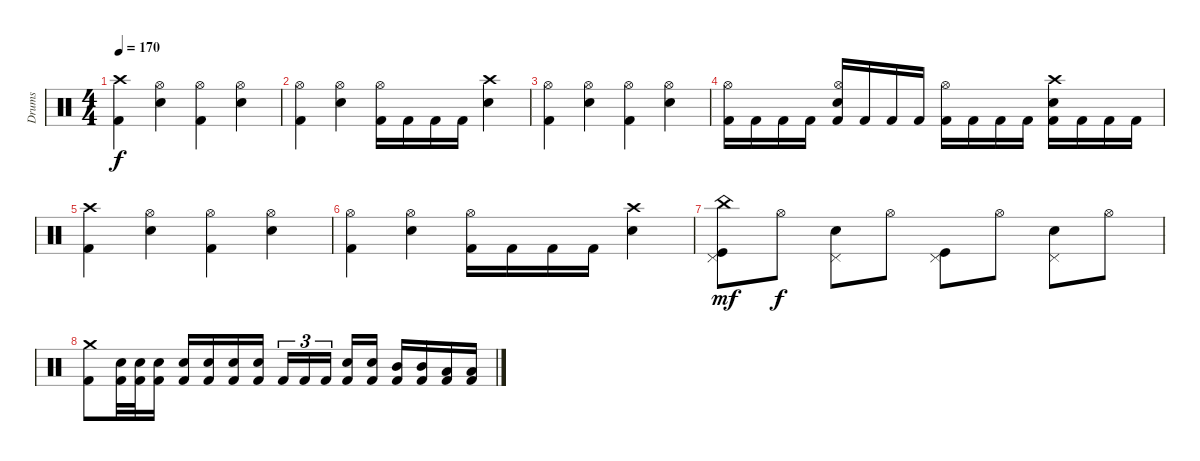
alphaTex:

\track ("Drums" "Drums") {instrument percussion}
\staff {score}
\articulation defaults
\ts (4 4)
\tempo 170
\clef neutral
\ks c
("Crash high (hit)" "Kick (hit) 2").4{dy f} ("Hi-Hat (open)" "Snare (hit) 2").4 ("Hi-Hat (open)" "Kick (hit) 2").4 ("Hi-Hat (open)" "Snare (hit) 2").4 |
("Hi-Hat (open)" "Kick (hit) 2").4 ("Hi-Hat (open)" "Snare (hit) 2").4 ("Hi-Hat (open)" "Kick (hit) 2").16 "Kick (hit) 2".16 "Kick (hit) 2".16 "Kick (hit) 2".16 ("Crash high (hit)" "Snare (hit) 2").4 |
("Hi-Hat (open)" "Kick (hit) 2").4 ("Hi-Hat (open)" "Snare (hit) 2").4 ("Hi-Hat (open)" "Kick (hit) 2").4 ("Hi-Hat (open)" "Snare (hit) 2").4 |
("Hi-Hat (open)" "Kick (hit) 2").16 "Kick (hit) 2".16 "Kick (hit) 2".16 "Kick (hit) 2".16 ("Hi-Hat (open)" "Snare (hit) 2" "Kick (hit) 2").16 "Kick (hit) 2".16 "Kick (hit) 2".16 "Kick (hit) 2".16 ("Hi-Hat (open)" "Kick (hit) 2").16 "Kick (hit) 2".16 "Kick (hit) 2".16 "Kick (hit) 2".16 ("Crash high (hit)" "Snare (hit) 2" "Kick (hit) 2").16 "Kick (hit) 2".16 "Kick (hit) 2".16 "Kick (hit) 2".16 |
("Crash high (hit)" "Kick (hit) 2").4 ("Hi-Hat (open)" "Snare (hit) 2").4 ("Hi-Hat (open)" "Kick (hit) 2").4 ("Hi-Hat (open)" "Snare (hit) 2").4 |
("Hi-Hat (open)" "Kick (hit) 2").4 ("Hi-Hat (open)" "Snare (hit) 2").4 ("Hi-Hat (open)" "Kick (hit) 2").16 "Kick (hit) 2".16 "Kick (hit) 2".16 "Kick (hit) 2".16 ("Crash high (hit)" "Snare (hit) 2").4 |
("China (hit)" "Pedal Hi-Hat (hit)" "Kick (hit)").8{dy mf} "Hi-Hat (open)".8{dy f} ("Pedal Hi-Hat (hit)" "Snare (hit) 2").8 "Hi-Hat (open)".8 ("Pedal Hi-Hat (hit)" "Kick (hit)").8 "Hi-Hat (open)".8 ("Pedal Hi-Hat (hit)" "Snare (hit) 2").8 "Hi-Hat (open)".8 |
("Crash medium (hit)" "Kick (hit) 2").8 ("Snare (hit) 2" "Kick (hit) 2").32 ("Snare (hit) 2" "Kick (hit) 2").32 ("Snare (hit) 2" "Kick (hit) 2").16 ("Snare (hit) 2" "Kick (hit) 2").16 ("Snare (hit) 2" "Kick (hit) 2").16 ("Snare (hit) 2" "Kick (hit) 2").16 ("Snare (hit) 2" "Kick (hit) 2").16 "Kick (hit) 2".16{tu (3 2)} "Kick (hit) 2".16{tu (3 2)} "Kick (hit) 2".16{tu (3 2)} ("Snare (hit) 2" "Kick (hit) 2").16 ("Snare (hit) 2" "Kick (hit) 2").16 ("Mid Tom (hit)" "Kick (hit) 2").16 ("Mid Tom (hit)" "Kick (hit) 2").16 ("Low Tom (hit)" "Kick (hit) 2").16 ("Low Tom (hit)" "Kick (hit) 2").16
